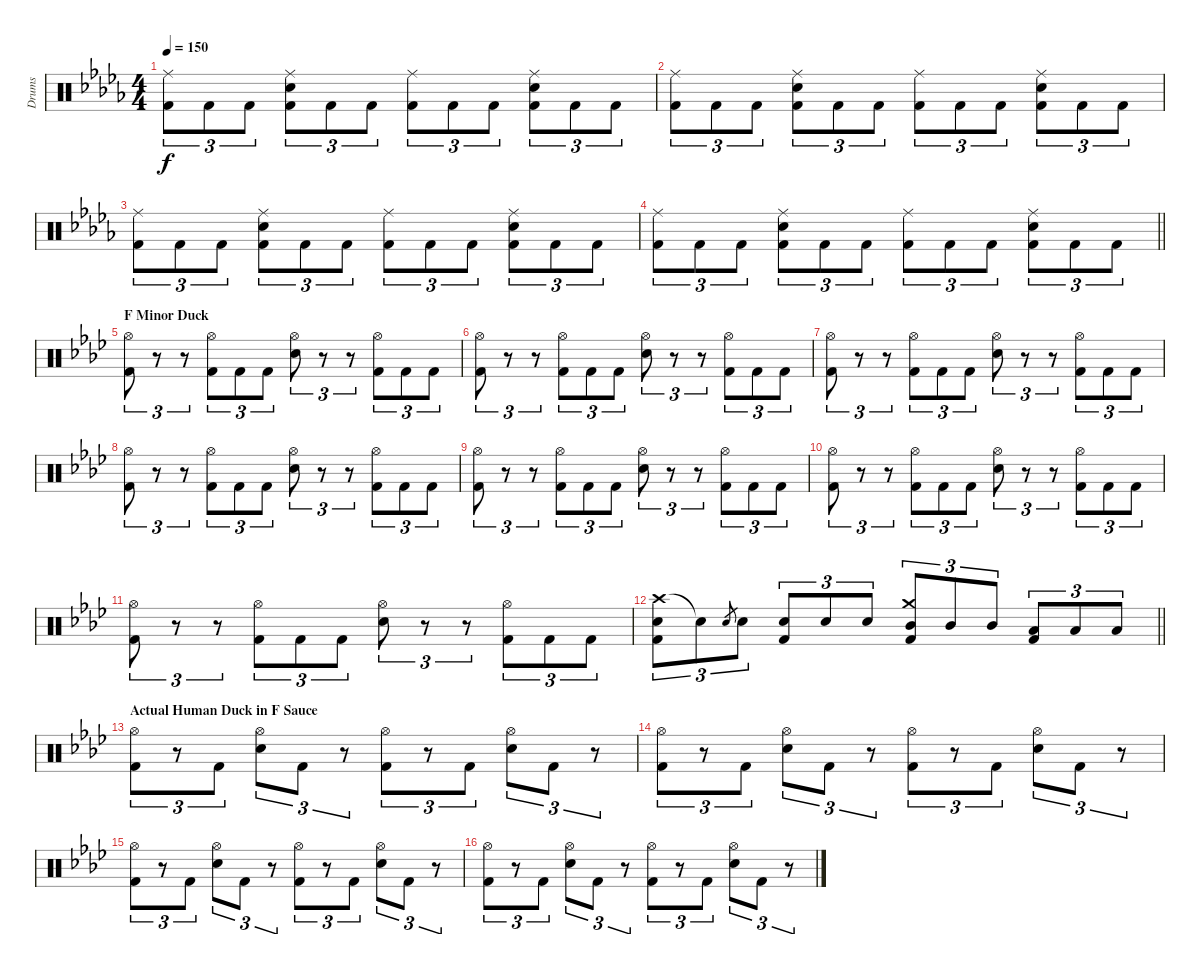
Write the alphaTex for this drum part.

\track ("Drums" "Drums") {instrument percussion}
\staff {score}
\articulation defaults
\ts (4 4)
\tempo 150
\clef neutral
\ks bbminor
("Ride (middle)" "Kick (hit) 2").8{tu (3 2) dy f} "Kick (hit) 2".8{tu (3 2)} "Kick (hit) 2".8{tu (3 2)} ("Ride (middle)" "Snare (hit) 2" "Kick (hit) 2").8{tu (3 2)} "Kick (hit) 2".8{tu (3 2)} "Kick (hit) 2".8{tu (3 2)} ("Ride (middle)" "Kick (hit) 2").8{tu (3 2)} "Kick (hit) 2".8{tu (3 2)} "Kick (hit) 2".8{tu (3 2)} ("Ride (middle)" "Snare (hit) 2" "Kick (hit) 2").8{tu (3 2)} "Kick (hit) 2".8{tu (3 2)} "Kick (hit) 2".8{tu (3 2)} |
("Ride (middle)" "Kick (hit) 2").8{tu (3 2)} "Kick (hit) 2".8{tu (3 2)} "Kick (hit) 2".8{tu (3 2)} ("Ride (middle)" "Snare (hit) 2" "Kick (hit) 2").8{tu (3 2)} "Kick (hit) 2".8{tu (3 2)} "Kick (hit) 2".8{tu (3 2)} ("Ride (middle)" "Kick (hit) 2").8{tu (3 2)} "Kick (hit) 2".8{tu (3 2)} "Kick (hit) 2".8{tu (3 2)} ("Ride (middle)" "Snare (hit) 2" "Kick (hit) 2").8{tu (3 2)} "Kick (hit) 2".8{tu (3 2)} "Kick (hit) 2".8{tu (3 2)} |
("Ride (middle)" "Kick (hit) 2").8{tu (3 2)} "Kick (hit) 2".8{tu (3 2)} "Kick (hit) 2".8{tu (3 2)} ("Ride (middle)" "Snare (hit) 2" "Kick (hit) 2").8{tu (3 2)} "Kick (hit) 2".8{tu (3 2)} "Kick (hit) 2".8{tu (3 2)} ("Ride (middle)" "Kick (hit) 2").8{tu (3 2)} "Kick (hit) 2".8{tu (3 2)} "Kick (hit) 2".8{tu (3 2)} ("Ride (middle)" "Snare (hit) 2" "Kick (hit) 2").8{tu (3 2)} "Kick (hit) 2".8{tu (3 2)} "Kick (hit) 2".8{tu (3 2)} |
\barLineRight lightlight
("Ride (middle)" "Kick (hit) 2").8{tu (3 2)} "Kick (hit) 2".8{tu (3 2)} "Kick (hit) 2".8{tu (3 2)} ("Ride (middle)" "Snare (hit) 2" "Kick (hit) 2").8{tu (3 2)} "Kick (hit) 2".8{tu (3 2)} "Kick (hit) 2".8{tu (3 2)} ("Ride (middle)" "Kick (hit) 2").8{tu (3 2)} "Kick (hit) 2".8{tu (3 2)} "Kick (hit) 2".8{tu (3 2)} ("Ride (middle)" "Snare (hit) 2" "Kick (hit) 2").8{tu (3 2)} "Kick (hit) 2".8{tu (3 2)} "Kick (hit) 2".8{tu (3 2)} |
\section ("" "F Minor Duck")
\ks fminor
("Hi-Hat (open)" "Kick (hit) 2").8{tu (3 2)} r.8{tu (3 2)} r.8{tu (3 2)} ("Hi-Hat (open)" "Kick (hit) 2").8{tu (3 2)} "Kick (hit) 2".8{tu (3 2)} "Kick (hit) 2".8{tu (3 2)} ("Hi-Hat (open)" "Snare (hit) 2").8{tu (3 2)} r.8{tu (3 2)} r.8{tu (3 2)} ("Hi-Hat (open)" "Kick (hit) 2").8{tu (3 2)} "Kick (hit) 2".8{tu (3 2)} "Kick (hit) 2".8{tu (3 2)} |
("Hi-Hat (open)" "Kick (hit) 2").8{tu (3 2)} r.8{tu (3 2)} r.8{tu (3 2)} ("Hi-Hat (open)" "Kick (hit) 2").8{tu (3 2)} "Kick (hit) 2".8{tu (3 2)} "Kick (hit) 2".8{tu (3 2)} ("Hi-Hat (open)" "Snare (hit) 2").8{tu (3 2)} r.8{tu (3 2)} r.8{tu (3 2)} ("Hi-Hat (open)" "Kick (hit) 2").8{tu (3 2)} "Kick (hit) 2".8{tu (3 2)} "Kick (hit) 2".8{tu (3 2)} |
("Hi-Hat (open)" "Kick (hit) 2").8{tu (3 2)} r.8{tu (3 2)} r.8{tu (3 2)} ("Hi-Hat (open)" "Kick (hit) 2").8{tu (3 2)} "Kick (hit) 2".8{tu (3 2)} "Kick (hit) 2".8{tu (3 2)} ("Hi-Hat (open)" "Snare (hit) 2").8{tu (3 2)} r.8{tu (3 2)} r.8{tu (3 2)} ("Hi-Hat (open)" "Kick (hit) 2").8{tu (3 2)} "Kick (hit) 2".8{tu (3 2)} "Kick (hit) 2".8{tu (3 2)} |
("Hi-Hat (open)" "Kick (hit) 2").8{tu (3 2)} r.8{tu (3 2)} r.8{tu (3 2)} ("Hi-Hat (open)" "Kick (hit) 2").8{tu (3 2)} "Kick (hit) 2".8{tu (3 2)} "Kick (hit) 2".8{tu (3 2)} ("Hi-Hat (open)" "Snare (hit) 2").8{tu (3 2)} r.8{tu (3 2)} r.8{tu (3 2)} ("Hi-Hat (open)" "Kick (hit) 2").8{tu (3 2)} "Kick (hit) 2".8{tu (3 2)} "Kick (hit) 2".8{tu (3 2)} |
("Hi-Hat (open)" "Kick (hit) 2").8{tu (3 2)} r.8{tu (3 2)} r.8{tu (3 2)} ("Hi-Hat (open)" "Kick (hit) 2").8{tu (3 2)} "Kick (hit) 2".8{tu (3 2)} "Kick (hit) 2".8{tu (3 2)} ("Hi-Hat (open)" "Snare (hit) 2").8{tu (3 2)} r.8{tu (3 2)} r.8{tu (3 2)} ("Hi-Hat (open)" "Kick (hit) 2").8{tu (3 2)} "Kick (hit) 2".8{tu (3 2)} "Kick (hit) 2".8{tu (3 2)} |
("Hi-Hat (open)" "Kick (hit) 2").8{tu (3 2)} r.8{tu (3 2)} r.8{tu (3 2)} ("Hi-Hat (open)" "Kick (hit) 2").8{tu (3 2)} "Kick (hit) 2".8{tu (3 2)} "Kick (hit) 2".8{tu (3 2)} ("Hi-Hat (open)" "Snare (hit) 2").8{tu (3 2)} r.8{tu (3 2)} r.8{tu (3 2)} ("Hi-Hat (open)" "Kick (hit) 2").8{tu (3 2)} "Kick (hit) 2".8{tu (3 2)} "Kick (hit) 2".8{tu (3 2)} |
("Hi-Hat (open)" "Kick (hit) 2").8{tu (3 2)} r.8{tu (3 2)} r.8{tu (3 2)} ("Hi-Hat (open)" "Kick (hit) 2").8{tu (3 2)} "Kick (hit) 2".8{tu (3 2)} "Kick (hit) 2".8{tu (3 2)} ("Hi-Hat (open)" "Snare (hit) 2").8{tu (3 2)} r.8{tu (3 2)} r.8{tu (3 2)} ("Hi-Hat (open)" "Kick (hit) 2").8{tu (3 2)} "Kick (hit) 2".8{tu (3 2)} "Kick (hit) 2".8{tu (3 2)} |
\barLineRight lightlight
("Crash high (hit)" "Snare (hit) 2" "Kick (hit) 2").8{tu (3 2)} "Snare (hit) 2"{t}.8{tu (3 2)} "Snare (hit) 2".8{gr} "Snare (hit) 2".8{tu (3 2)} ("Snare (hit) 2" "Kick (hit) 2").8{tu (3 2)} "Snare (hit) 2".8{tu (3 2)} "Snare (hit) 2".8{tu (3 2)} ("Crash medium (hit)" "Mid Tom (hit)" "Kick (hit) 2").8{tu (3 2)} "Mid Tom (hit)".8{tu (3 2)} "Mid Tom (hit)".8{tu (3 2)} ("Low Tom (hit)" "Kick (hit) 2").8{tu (3 2)} "Low Tom (hit)".8{tu (3 2)} "Low Tom (hit)".8{tu (3 2)} |
\section ("" "Actual Human Duck in F Sauce")
("Hi-Hat (open)" "Kick (hit) 2").8{tu (3 2)} r.8{tu (3 2)} "Kick (hit) 2".8{tu (3 2)} ("Hi-Hat (open)" "Snare (hit) 2").8{tu (3 2)} "Kick (hit) 2".8{tu (3 2)} r.8{tu (3 2)} ("Hi-Hat (open)" "Kick (hit) 2").8{tu (3 2)} r.8{tu (3 2)} "Kick (hit) 2".8{tu (3 2)} ("Hi-Hat (open)" "Snare (hit) 2").8{tu (3 2)} "Kick (hit) 2".8{tu (3 2)} r.8{tu (3 2)} |
("Hi-Hat (open)" "Kick (hit) 2").8{tu (3 2)} r.8{tu (3 2)} "Kick (hit) 2".8{tu (3 2)} ("Hi-Hat (open)" "Snare (hit) 2").8{tu (3 2)} "Kick (hit) 2".8{tu (3 2)} r.8{tu (3 2)} ("Hi-Hat (open)" "Kick (hit) 2").8{tu (3 2)} r.8{tu (3 2)} "Kick (hit) 2".8{tu (3 2)} ("Hi-Hat (open)" "Snare (hit) 2").8{tu (3 2)} "Kick (hit) 2".8{tu (3 2)} r.8{tu (3 2)} |
("Hi-Hat (open)" "Kick (hit) 2").8{tu (3 2)} r.8{tu (3 2)} "Kick (hit) 2".8{tu (3 2)} ("Hi-Hat (open)" "Snare (hit) 2").8{tu (3 2)} "Kick (hit) 2".8{tu (3 2)} r.8{tu (3 2)} ("Hi-Hat (open)" "Kick (hit) 2").8{tu (3 2)} r.8{tu (3 2)} "Kick (hit) 2".8{tu (3 2)} ("Hi-Hat (open)" "Snare (hit) 2").8{tu (3 2)} "Kick (hit) 2".8{tu (3 2)} r.8{tu (3 2)} |
("Hi-Hat (open)" "Kick (hit) 2").8{tu (3 2)} r.8{tu (3 2)} "Kick (hit) 2".8{tu (3 2)} ("Hi-Hat (open)" "Snare (hit) 2").8{tu (3 2)} "Kick (hit) 2".8{tu (3 2)} r.8{tu (3 2)} ("Hi-Hat (open)" "Kick (hit) 2").8{tu (3 2)} r.8{tu (3 2)} "Kick (hit) 2".8{tu (3 2)} ("Hi-Hat (open)" "Snare (hit) 2").8{tu (3 2)} "Kick (hit) 2".8{tu (3 2)} r.8{tu (3 2)}
